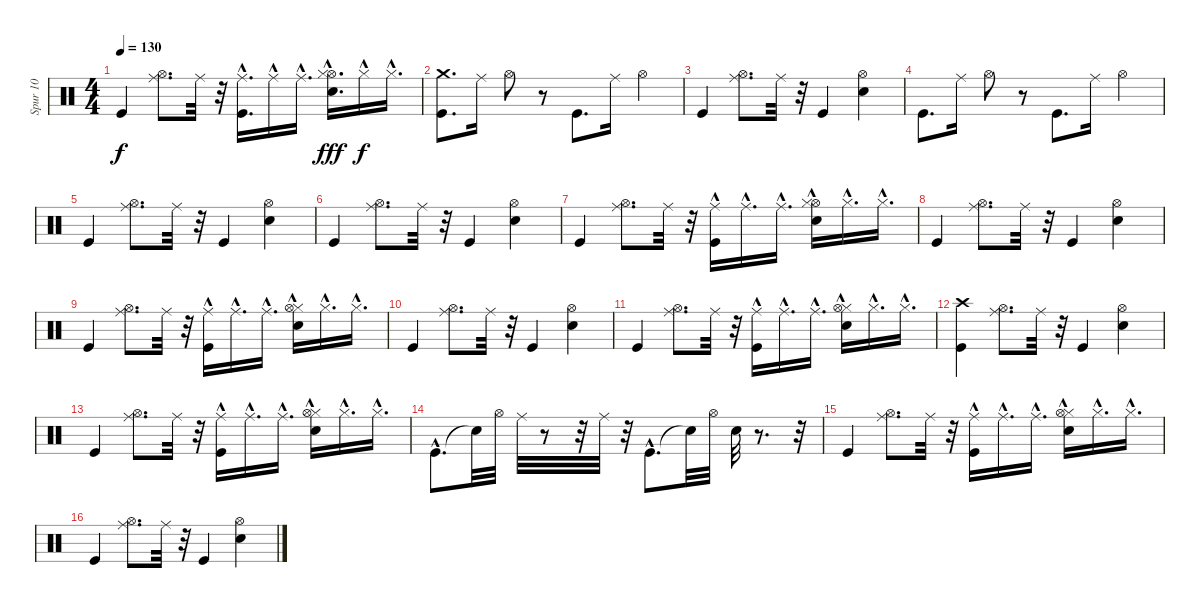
\track ("Spur 10" "Spur 10") {instrument percussion}
\staff {score}
\articulation defaults
\ts (4 4)
\tempo 130
\clef neutral
\ks c "Kick (hit)".4{dy f}
("Hi-Hat (open)" "Ride (middle)").8{d} "Ride (middle)".32 r.32 ("Ride (middle)"{hac} "Kick (hit)").16{d} "Ride (middle)"{hac}.16 "Ride (middle)"{hac}.16{d} ("Hi-Hat (open)" "Hi-Hat (closed)"{hac} "Electric Snare (hit)").16{d dy fff} "Hi-Hat (closed)"{hac}.16{dy f} "Hi-Hat (closed)"{hac}.16{d} |
("Crash medium (hit)" "Kick (hit)").8{d} "Ride (middle)".16 "Hi-Hat (open)".8 r.8 "Kick (hit)".8{d} "Ride (middle)".16 "Hi-Hat (open)".4 |
"Kick (hit)".4 ("Hi-Hat (open)" "Ride (middle)").8{d} "Ride (middle)".32 r.32 "Kick (hit)".4 ("Hi-Hat (open)" "Electric Snare (hit)").4 |
"Kick (hit)".8{d} "Ride (middle)".16 "Hi-Hat (open)".8 r.8 "Kick (hit)".8{d} "Ride (middle)".16 "Hi-Hat (open)".4 |
"Kick (hit)".4 ("Hi-Hat (open)" "Ride (middle)").8{d} "Ride (middle)".32 r.32 "Kick (hit)".4 ("Hi-Hat (open)" "Electric Snare (hit)").4 |
"Kick (hit)".4 ("Hi-Hat (open)" "Ride (middle)").8{d} "Ride (middle)".32 r.32 "Kick (hit)".4 ("Hi-Hat (open)" "Electric Snare (hit)").4 |
"Kick (hit)".4 ("Hi-Hat (open)" "Ride (middle)").8{d} "Ride (middle)".32 r.32 ("Ride (middle)"{hac} "Kick (hit)").16 "Ride (middle)"{hac}.16{d} "Ride (middle)"{hac}.16{d} ("Hi-Hat (open)" "Hi-Hat (closed)"{hac} "Electric Snare (hit)").16 "Hi-Hat (closed)"{hac}.16{d} "Hi-Hat (closed)"{hac}.16{d} |
"Kick (hit)".4 ("Hi-Hat (open)" "Ride (middle)").8{d} "Ride (middle)".32 r.32 "Kick (hit)".4 ("Hi-Hat (open)" "Electric Snare (hit)").4 |
"Kick (hit)".4 ("Hi-Hat (open)" "Ride (middle)").8{d} "Ride (middle)".32 r.32 ("Ride (middle)"{hac} "Kick (hit)").16 "Ride (middle)"{hac}.16{d} "Ride (middle)"{hac}.16{d} ("Hi-Hat (closed)"{hac} "Hi-Hat (open)" "Electric Snare (hit)").16 "Hi-Hat (closed)"{hac}.16{d} "Hi-Hat (closed)"{hac}.16{d} |
"Kick (hit)".4 ("Hi-Hat (open)" "Ride (middle)").8{d} "Ride (middle)".32 r.32 "Kick (hit)".4 ("Hi-Hat (open)" "Electric Snare (hit)").4 |
"Kick (hit)".4 ("Hi-Hat (open)" "Ride (middle)").8{d} "Ride (middle)".32 r.32 ("Ride (middle)"{hac} "Kick (hit)").16 "Ride (middle)"{hac}.16{d} "Ride (middle)"{hac}.16{d} ("Hi-Hat (closed)"{hac} "Hi-Hat (open)" "Electric Snare (hit)").16 "Hi-Hat (closed)"{hac}.16{d} "Hi-Hat (closed)"{hac}.16{d} |
("Crash high (hit)" "Kick (hit)").4 ("Hi-Hat (open)" "Ride (middle)").8{d} "Ride (middle)".32 r.32 "Kick (hit)".4 ("Hi-Hat (open)" "Electric Snare (hit)").4 |
"Kick (hit)".4 ("Hi-Hat (open)" "Ride (middle)").8{d} "Ride (middle)".32 r.32 ("Ride (middle)"{hac} "Kick (hit)").16 "Ride (middle)"{hac}.16{d} "Ride (middle)"{hac}.16{d} ("Hi-Hat (closed)"{hac} "Hi-Hat (open)" "Electric Snare (hit)").16 "Hi-Hat (closed)"{hac}.16{d} "Hi-Hat (closed)"{hac}.16{d} |
"Kick (hit)"{hac}.8{d} "Snare (hit)"{t}.32 "Hi-Hat (open)".32 "Ride (middle)".32 r.8 r.32 "Ride (middle)".32 r.32 "Kick (hit)"{hac}.8{d} "Snare (hit)"{t}.32 "Hi-Hat (open)".32 "Electric Snare (hit)".32 r.8{d} r.32 |
"Kick (hit)".4 ("Hi-Hat (open)" "Ride (middle)").8{d} "Ride (middle)".32 r.32 ("Ride (middle)"{hac} "Kick (hit)").16 "Ride (middle)"{hac}.16{d} "Ride (middle)"{hac}.16{d} ("Hi-Hat (closed)"{hac} "Hi-Hat (open)" "Electric Snare (hit)").16 "Hi-Hat (closed)"{hac}.16{d} "Hi-Hat (closed)"{hac}.16{d} |
"Kick (hit)".4 ("Hi-Hat (open)" "Ride (middle)").8{d} "Ride (middle)".32 r.32 "Kick (hit)".4 ("Hi-Hat (open)" "Electric Snare (hit)").4
